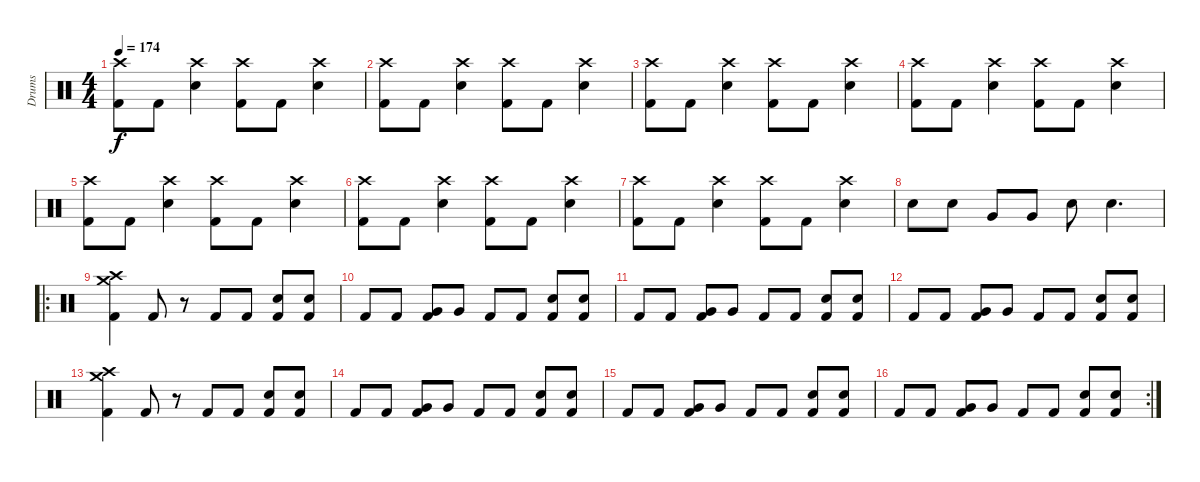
\track ("Drums" "Drums") {instrument percussion}
\staff {score}
\articulation defaults
\ts (4 4)
\tempo 174
\clef neutral
\ks c
("Crash high (hit)" "Kick (hit) 2").8{dy f} "Kick (hit) 2".8 ("Crash high (hit)" "Snare (hit) 2").4 ("Crash high (hit)" "Kick (hit) 2").8 "Kick (hit) 2".8 ("Crash high (hit)" "Snare (hit) 2").4 |
("Crash high (hit)" "Kick (hit) 2").8 "Kick (hit) 2".8 ("Crash high (hit)" "Snare (hit) 2").4 ("Crash high (hit)" "Kick (hit) 2").8 "Kick (hit) 2".8 ("Crash high (hit)" "Snare (hit) 2").4 |
("Crash high (hit)" "Kick (hit) 2").8 "Kick (hit) 2".8 ("Crash high (hit)" "Snare (hit) 2").4 ("Crash high (hit)" "Kick (hit) 2").8 "Kick (hit) 2".8 ("Crash high (hit)" "Snare (hit) 2").4 |
("Crash high (hit)" "Kick (hit) 2").8 "Kick (hit) 2".8 ("Crash high (hit)" "Snare (hit) 2").4 ("Crash high (hit)" "Kick (hit) 2").8 "Kick (hit) 2".8 ("Crash high (hit)" "Snare (hit) 2").4 |
("Crash high (hit)" "Kick (hit) 2").8 "Kick (hit) 2".8 ("Crash high (hit)" "Snare (hit) 2").4 ("Crash high (hit)" "Kick (hit) 2").8 "Kick (hit) 2".8 ("Crash high (hit)" "Snare (hit) 2").4 |
("Crash high (hit)" "Kick (hit) 2").8 "Kick (hit) 2".8 ("Crash high (hit)" "Snare (hit) 2").4 ("Crash high (hit)" "Kick (hit) 2").8 "Kick (hit) 2".8 ("Crash high (hit)" "Snare (hit) 2").4 |
("Crash high (hit)" "Kick (hit) 2").8 "Kick (hit) 2".8 ("Crash high (hit)" "Snare (hit) 2").4 ("Crash high (hit)" "Kick (hit) 2").8 "Kick (hit) 2".8 ("Crash high (hit)" "Snare (hit) 2").4 |
"Snare (hit) 2".8 "Snare (hit) 2".8 "Very Low Tom (hit)".8 "Very Low Tom (hit)".8 "Snare (hit) 2".8 "Snare (hit) 2".4{d} |
\ro
("Crash high (hit)" "Crash medium (hit)" "Kick (hit) 2").4 "Kick (hit) 2".8 r.8 "Kick (hit) 2".8 "Kick (hit) 2".8 ("Snare (hit) 2" "Kick (hit) 2").8 ("Snare (hit) 2" "Kick (hit) 2").8 |
"Kick (hit) 2".8 "Kick (hit) 2".8 ("Very Low Tom (hit)" "Kick (hit) 2").8 "Very Low Tom (hit)".8 "Kick (hit) 2".8 "Kick (hit) 2".8 ("Snare (hit) 2" "Kick (hit) 2").8 ("Snare (hit) 2" "Kick (hit) 2").8 |
"Kick (hit) 2".8 "Kick (hit) 2".8 ("Very Low Tom (hit)" "Kick (hit) 2").8 "Very Low Tom (hit)".8 "Kick (hit) 2".8 "Kick (hit) 2".8 ("Snare (hit) 2" "Kick (hit) 2").8 ("Snare (hit) 2" "Kick (hit) 2").8 |
"Kick (hit) 2".8 "Kick (hit) 2".8 ("Very Low Tom (hit)" "Kick (hit) 2").8 "Very Low Tom (hit)".8 "Kick (hit) 2".8 "Kick (hit) 2".8 ("Snare (hit) 2" "Kick (hit) 2").8 ("Snare (hit) 2" "Kick (hit) 2").8 |
("Crash high (hit)" "Crash medium (hit)" "Kick (hit) 2").4 "Kick (hit) 2".8 r.8 "Kick (hit) 2".8 "Kick (hit) 2".8 ("Snare (hit) 2" "Kick (hit) 2").8 ("Snare (hit) 2" "Kick (hit) 2").8 |
"Kick (hit) 2".8 "Kick (hit) 2".8 ("Very Low Tom (hit)" "Kick (hit) 2").8 "Very Low Tom (hit)".8 "Kick (hit) 2".8 "Kick (hit) 2".8 ("Snare (hit) 2" "Kick (hit) 2").8 ("Snare (hit) 2" "Kick (hit) 2").8 |
"Kick (hit) 2".8 "Kick (hit) 2".8 ("Very Low Tom (hit)" "Kick (hit) 2").8 "Very Low Tom (hit)".8 "Kick (hit) 2".8 "Kick (hit) 2".8 ("Snare (hit) 2" "Kick (hit) 2").8 ("Snare (hit) 2" "Kick (hit) 2").8 |
\rc 2 "Kick (hit) 2".8 "Kick (hit) 2".8
("Very Low Tom (hit)" "Kick (hit) 2").8 "Very Low Tom (hit)".8 "Kick (hit) 2".8 "Kick (hit) 2".8 ("Snare (hit) 2" "Kick (hit) 2").8 ("Snare (hit) 2" "Kick (hit) 2").8
